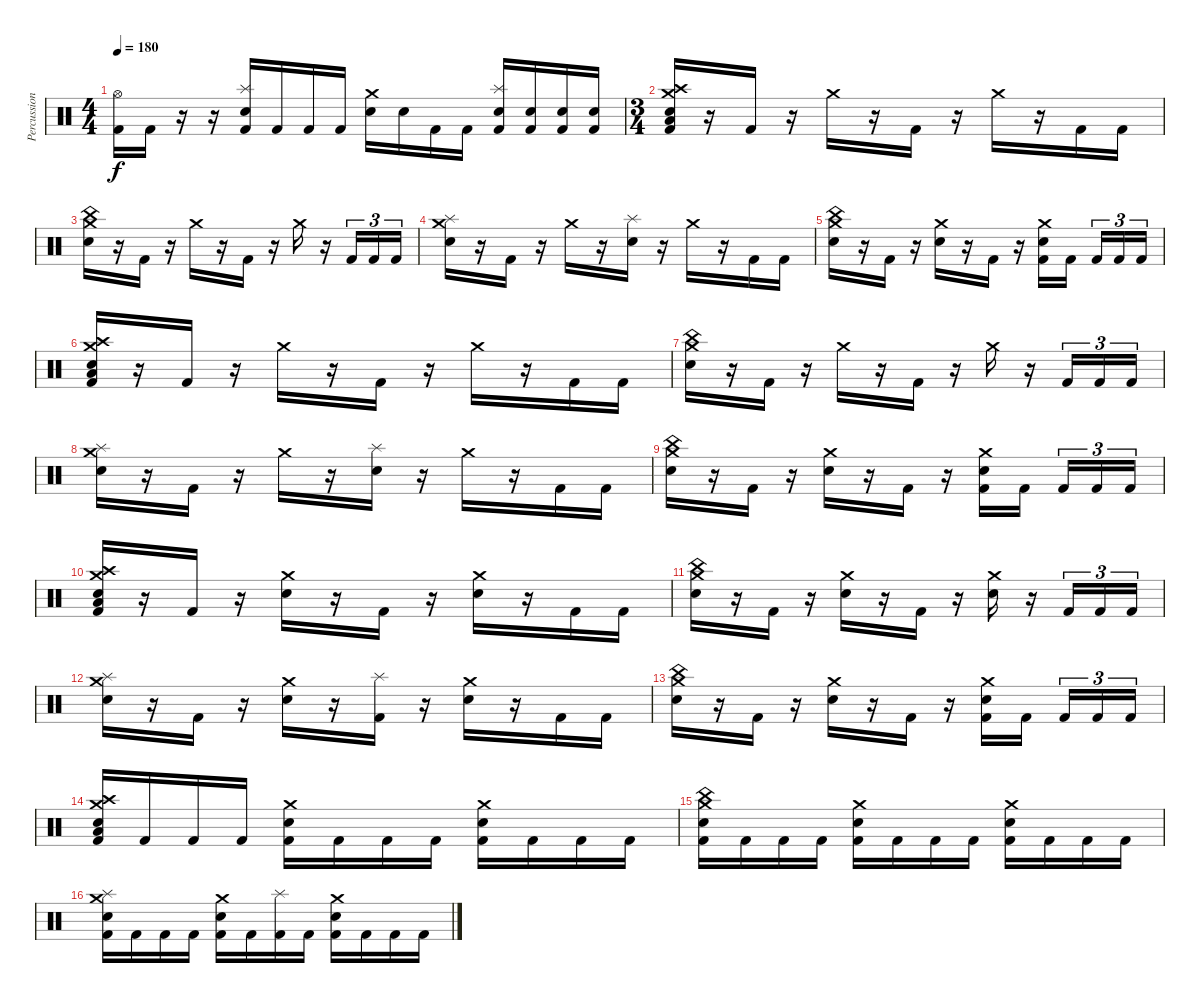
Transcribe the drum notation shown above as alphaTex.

\track ("Percussion" "Percussion") {instrument percussion}
\staff {score}
\articulation defaults
\ts (4 4)
\tempo 180
\clef neutral
\ks c
("Hi-Hat (open)" "Kick (hit) 2").16{dy f} "Kick (hit) 2".16 r.16 r.16 ("Splash (hit)" "Electric Snare (hit)" "Kick (hit) 2").16 "Kick (hit) 2".16 "Kick (hit) 2".16 "Kick (hit) 2".16 ("Crash medium (hit)" "Electric Snare (hit)").16 "Electric Snare (hit)".16 "Kick (hit) 2".16 "Kick (hit) 2".16 ("Splash (hit)" "Electric Snare (hit)" "Kick (hit) 2").16 ("Electric Snare (hit)" "Kick (hit) 2").16 ("Electric Snare (hit)" "Kick (hit) 2").16 ("Electric Snare (hit)" "Kick (hit) 2").16 |
\ts (3 4)
("Crash high (hit)" "Crash medium (hit)" "Electric Snare (hit)" "Low Floor Tom (hit)" "Kick (hit) 2").16 r.16 "Kick (hit) 2".16 r.16 "Crash medium (hit)".16 r.16 "Kick (hit) 2".16 r.16 "Crash medium (hit)".16 r.16 "Kick (hit) 2".16 "Kick (hit) 2".16 |
("Crash medium (hit)" "China (hit)" "Electric Snare (hit)").16 r.16 "Kick (hit) 2".16 r.16 "Crash medium (hit)".16 r.16 "Kick (hit) 2".16 r.16 "Crash medium (hit)".16 r.16 "Kick (hit) 2".16{tu (3 2)} "Kick (hit) 2".16{tu (3 2)} "Kick (hit) 2".16{tu (3 2)} |
("Crash medium (hit)" "Splash (hit)" "Electric Snare (hit)").16 r.16 "Kick (hit) 2".16 r.16 "Crash medium (hit)".16 r.16 ("Splash (hit)" "Electric Snare (hit)").16 r.16 "Crash medium (hit)".16 r.16 "Kick (hit) 2".16 "Kick (hit) 2".16 |
("Crash medium (hit)" "China (hit)" "Electric Snare (hit)").16 r.16 "Kick (hit) 2".16 r.16 ("Crash medium (hit)" "Electric Snare (hit)").16 r.16 "Kick (hit) 2".16 r.16 ("Crash medium (hit)" "Electric Snare (hit)" "Kick (hit) 2").16 "Kick (hit) 2".16 "Kick (hit) 2".16{tu (3 2)} "Kick (hit) 2".16{tu (3 2)} "Kick (hit) 2".16{tu (3 2)} |
("Crash high (hit)" "Crash medium (hit)" "Electric Snare (hit)" "Low Floor Tom (hit)" "Kick (hit) 2").16 r.16 "Kick (hit) 2".16 r.16 "Crash medium (hit)".16 r.16 "Kick (hit) 2".16 r.16 "Crash medium (hit)".16 r.16 "Kick (hit) 2".16 "Kick (hit) 2".16 |
("Crash medium (hit)" "China (hit)" "Electric Snare (hit)").16 r.16 "Kick (hit) 2".16 r.16 "Crash medium (hit)".16 r.16 "Kick (hit) 2".16 r.16 "Crash medium (hit)".16 r.16 "Kick (hit) 2".16{tu (3 2)} "Kick (hit) 2".16{tu (3 2)} "Kick (hit) 2".16{tu (3 2)} |
("Crash medium (hit)" "Splash (hit)" "Electric Snare (hit)").16 r.16 "Kick (hit) 2".16 r.16 "Crash medium (hit)".16 r.16 ("Splash (hit)" "Electric Snare (hit)").16 r.16 "Crash medium (hit)".16 r.16 "Kick (hit) 2".16 "Kick (hit) 2".16 |
("Crash medium (hit)" "China (hit)" "Electric Snare (hit)").16 r.16 "Kick (hit) 2".16 r.16 ("Crash medium (hit)" "Electric Snare (hit)").16 r.16 "Kick (hit) 2".16 r.16 ("Crash medium (hit)" "Electric Snare (hit)" "Kick (hit) 2").16 "Kick (hit) 2".16 "Kick (hit) 2".16{tu (3 2)} "Kick (hit) 2".16{tu (3 2)} "Kick (hit) 2".16{tu (3 2)} |
("Crash high (hit)" "Crash medium (hit)" "Electric Snare (hit)" "Low Floor Tom (hit)" "Kick (hit) 2").16 r.16 "Kick (hit) 2".16 r.16 ("Crash medium (hit)" "Electric Snare (hit)").16 r.16 "Kick (hit) 2".16 r.16 ("Crash medium (hit)" "Electric Snare (hit)").16 r.16 "Kick (hit) 2".16 "Kick (hit) 2".16 |
("Crash medium (hit)" "China (hit)" "Electric Snare (hit)").16 r.16 "Kick (hit) 2".16 r.16 ("Crash medium (hit)" "Electric Snare (hit)").16 r.16 "Kick (hit) 2".16 r.16 ("Crash medium (hit)" "Electric Snare (hit)").16 r.16 "Kick (hit) 2".16{tu (3 2)} "Kick (hit) 2".16{tu (3 2)} "Kick (hit) 2".16{tu (3 2)} |
("Crash medium (hit)" "Splash (hit)" "Electric Snare (hit)").16 r.16 "Kick (hit) 2".16 r.16 ("Crash medium (hit)" "Electric Snare (hit)").16 r.16 ("Splash (hit)" "Kick (hit) 2").16 r.16 ("Crash medium (hit)" "Electric Snare (hit)").16 r.16 "Kick (hit) 2".16 "Kick (hit) 2".16 |
("Crash medium (hit)" "China (hit)" "Electric Snare (hit)").16 r.16 "Kick (hit) 2".16 r.16 ("Crash medium (hit)" "Electric Snare (hit)").16 r.16 "Kick (hit) 2".16 r.16 ("Crash medium (hit)" "Electric Snare (hit)" "Kick (hit) 2").16 "Kick (hit) 2".16 "Kick (hit) 2".16{tu (3 2)} "Kick (hit) 2".16{tu (3 2)} "Kick (hit) 2".16{tu (3 2)} |
("Crash high (hit)" "Crash medium (hit)" "Electric Snare (hit)" "Low Floor Tom (hit)" "Kick (hit) 2").16 "Kick (hit) 2".16 "Kick (hit) 2".16 "Kick (hit) 2".16 ("Crash medium (hit)" "Electric Snare (hit)" "Kick (hit) 2").16 "Kick (hit) 2".16 "Kick (hit) 2".16 "Kick (hit) 2".16 ("Crash medium (hit)" "Electric Snare (hit)" "Kick (hit) 2").16 "Kick (hit) 2".16 "Kick (hit) 2".16 "Kick (hit) 2".16 |
("Crash medium (hit)" "China (hit)" "Electric Snare (hit)" "Kick (hit) 2").16 "Kick (hit) 2".16 "Kick (hit) 2".16 "Kick (hit) 2".16 ("Crash medium (hit)" "Electric Snare (hit)" "Kick (hit) 2").16 "Kick (hit) 2".16 "Kick (hit) 2".16 "Kick (hit) 2".16 ("Crash medium (hit)" "Electric Snare (hit)" "Kick (hit) 2").16 "Kick (hit) 2".16 "Kick (hit) 2".16 "Kick (hit) 2".16 |
("Crash medium (hit)" "Splash (hit)" "Electric Snare (hit)" "Kick (hit) 2").16 "Kick (hit) 2".16 "Kick (hit) 2".16 "Kick (hit) 2".16 ("Crash medium (hit)" "Electric Snare (hit)" "Kick (hit) 2").16 "Kick (hit) 2".16 ("Splash (hit)" "Kick (hit) 2").16 "Kick (hit) 2".16 ("Crash medium (hit)" "Electric Snare (hit)" "Kick (hit) 2").16 "Kick (hit) 2".16 "Kick (hit) 2".16 "Kick (hit) 2".16
